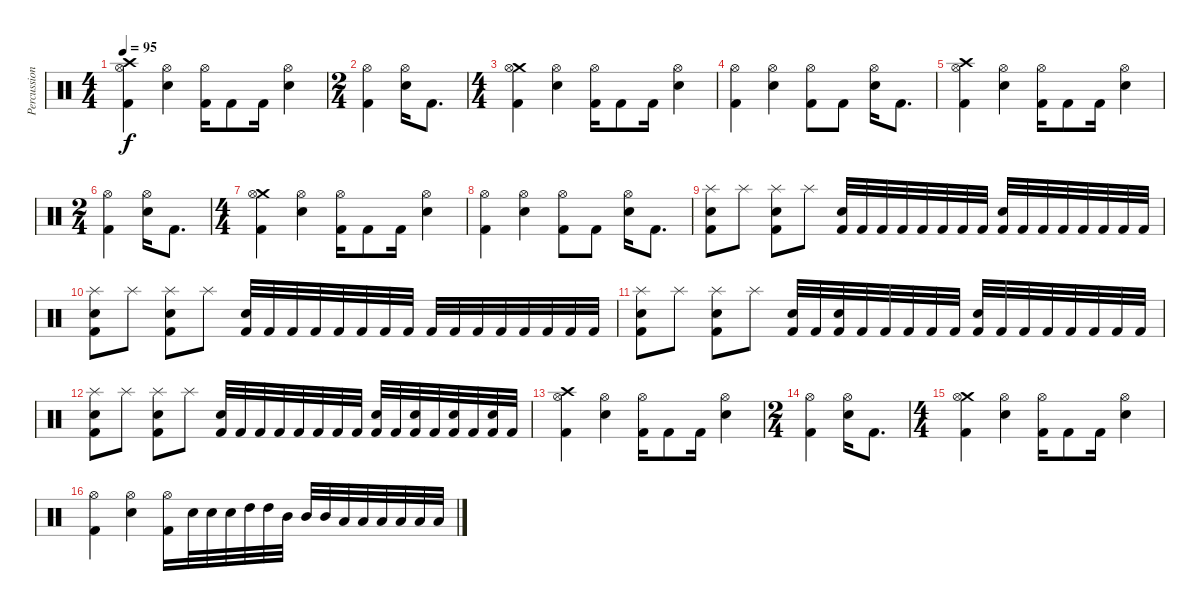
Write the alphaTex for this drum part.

\track ("Percussions" "Percussion") {instrument percussion}
\staff {score}
\articulation defaults
\ts (4 4)
\tempo 95
\clef neutral
\ks c
("Crash high (hit)" "Hi-Hat (open)" "Kick (hit) 2").4{dy f} ("Hi-Hat (open)" "Electric Snare (hit)").4 ("Hi-Hat (open)" "Kick (hit) 2").16 "Kick (hit) 2".8 "Kick (hit) 2".16 ("Hi-Hat (open)" "Electric Snare (hit)").4 |
\ts (2 4)
("Hi-Hat (open)" "Kick (hit) 2").4 ("Hi-Hat (open)" "Electric Snare (hit)").16 "Kick (hit) 2".8{d} |
\ts (4 4)
("Crash medium (hit)" "Hi-Hat (open)" "Kick (hit) 2").4 ("Hi-Hat (open)" "Electric Snare (hit)").4 ("Hi-Hat (open)" "Kick (hit) 2").16 "Kick (hit) 2".8 "Kick (hit) 2".16 ("Hi-Hat (open)" "Electric Snare (hit)").4 |
("Hi-Hat (open)" "Kick (hit) 2").4 ("Hi-Hat (open)" "Electric Snare (hit)").4 ("Hi-Hat (open)" "Kick (hit) 2").8 "Kick (hit) 2".8 ("Hi-Hat (open)" "Electric Snare (hit)").16 "Kick (hit) 2".8{d} |
("Crash high (hit)" "Hi-Hat (open)" "Kick (hit) 2").4 ("Hi-Hat (open)" "Electric Snare (hit)").4 ("Hi-Hat (open)" "Kick (hit) 2").16 "Kick (hit) 2".8 "Kick (hit) 2".16 ("Hi-Hat (open)" "Electric Snare (hit)").4 |
\ts (2 4)
("Hi-Hat (open)" "Kick (hit) 2").4 ("Hi-Hat (open)" "Electric Snare (hit)").16 "Kick (hit) 2".8{d} |
\ts (4 4)
("Crash medium (hit)" "Hi-Hat (open)" "Kick (hit) 2").4 ("Hi-Hat (open)" "Electric Snare (hit)").4 ("Hi-Hat (open)" "Kick (hit) 2").16 "Kick (hit) 2".8 "Kick (hit) 2".16 ("Hi-Hat (open)" "Electric Snare (hit)").4 |
("Hi-Hat (open)" "Kick (hit) 2").4 ("Hi-Hat (open)" "Electric Snare (hit)").4 ("Hi-Hat (open)" "Kick (hit) 2").8 "Kick (hit) 2".8 ("Hi-Hat (open)" "Electric Snare (hit)").16 "Kick (hit) 2".8{d} |
("Splash (hit)" "Electric Snare (hit)" "Kick (hit) 2").8 "Splash (hit)".8 ("Splash (hit)" "Electric Snare (hit)" "Kick (hit) 2").8 "Splash (hit)".8 ("Electric Snare (hit)" "Kick (hit) 2").32 "Kick (hit) 2".32 "Kick (hit) 2".32 "Kick (hit) 2".32 "Kick (hit) 2".32 "Kick (hit) 2".32 "Kick (hit) 2".32 "Kick (hit) 2".32 ("Electric Snare (hit)" "Kick (hit) 2").32 "Kick (hit) 2".32 "Kick (hit) 2".32 "Kick (hit) 2".32 "Kick (hit) 2".32 "Kick (hit) 2".32 "Kick (hit) 2".32 "Kick (hit) 2".32 |
("Splash (hit)" "Electric Snare (hit)" "Kick (hit) 2").8 "Splash (hit)".8 ("Splash (hit)" "Electric Snare (hit)" "Kick (hit) 2").8 "Splash (hit)".8 ("Electric Snare (hit)" "Kick (hit) 2").32 "Kick (hit) 2".32 "Kick (hit) 2".32 "Kick (hit) 2".32 "Kick (hit) 2".32 "Kick (hit) 2".32 "Kick (hit) 2".32 "Kick (hit) 2".32 "Kick (hit) 2".32 "Kick (hit) 2".32 "Kick (hit) 2".32 "Kick (hit) 2".32 "Kick (hit) 2".32 "Kick (hit) 2".32 "Kick (hit) 2".32 "Kick (hit) 2".32 |
("Splash (hit)" "Electric Snare (hit)" "Kick (hit) 2").8 "Splash (hit)".8 ("Splash (hit)" "Electric Snare (hit)" "Kick (hit) 2").8 "Splash (hit)".8 ("Electric Snare (hit)" "Kick (hit) 2").32 "Kick (hit) 2".32 ("Electric Snare (hit)" "Kick (hit) 2").32 "Kick (hit) 2".32 "Kick (hit) 2".32 "Kick (hit) 2".32 "Kick (hit) 2".32 "Kick (hit) 2".32 ("Electric Snare (hit)" "Kick (hit) 2").32 "Kick (hit) 2".32 "Kick (hit) 2".32 "Kick (hit) 2".32 "Kick (hit) 2".32 "Kick (hit) 2".32 "Kick (hit) 2".32 "Kick (hit) 2".32 |
("Splash (hit)" "Electric Snare (hit)" "Kick (hit) 2").8 "Splash (hit)".8 ("Splash (hit)" "Electric Snare (hit)" "Kick (hit) 2").8 "Splash (hit)".8 ("Electric Snare (hit)" "Kick (hit) 2").32 "Kick (hit) 2".32 "Kick (hit) 2".32 "Kick (hit) 2".32 "Kick (hit) 2".32 "Kick (hit) 2".32 "Kick (hit) 2".32 "Kick (hit) 2".32 ("Electric Snare (hit)" "Kick (hit) 2").32 "Kick (hit) 2".32 ("Electric Snare (hit)" "Kick (hit) 2").32 "Kick (hit) 2".32 ("Electric Snare (hit)" "Kick (hit) 2").32 "Kick (hit) 2".32 ("Electric Snare (hit)" "Kick (hit) 2").32 "Kick (hit) 2".32 |
("Crash high (hit)" "Hi-Hat (open)" "Kick (hit) 2").4 ("Hi-Hat (open)" "Electric Snare (hit)").4 ("Hi-Hat (open)" "Kick (hit) 2").16 "Kick (hit) 2".8 "Kick (hit) 2".16 ("Hi-Hat (open)" "Electric Snare (hit)").4 |
\ts (2 4)
("Hi-Hat (open)" "Kick (hit) 2").4 ("Hi-Hat (open)" "Electric Snare (hit)").16 "Kick (hit) 2".8{d} |
\ts (4 4)
("Crash medium (hit)" "Hi-Hat (open)" "Kick (hit) 2").4 ("Hi-Hat (open)" "Electric Snare (hit)").4 ("Hi-Hat (open)" "Kick (hit) 2").16 "Kick (hit) 2".8 "Kick (hit) 2".16 ("Hi-Hat (open)" "Electric Snare (hit)").4 |
("Hi-Hat (open)" "Kick (hit) 2").4 ("Hi-Hat (open)" "Electric Snare (hit)").4 ("Hi-Hat (open)" "Kick (hit) 2").16 "Electric Snare (hit)".32 "Electric Snare (hit)".32 "Electric Snare (hit)".32 "High Tom (hit)".32 "High Tom (hit)".32 "Mid Tom (hit)".32 "Mid Tom (hit)".32 "Mid Tom (hit)".32 "Low Tom (hit)".32 "Low Tom (hit)".32 "Low Tom (hit)".32 "Low Tom (hit)".32 "Low Tom (hit)".32 "Low Tom (hit)".32
